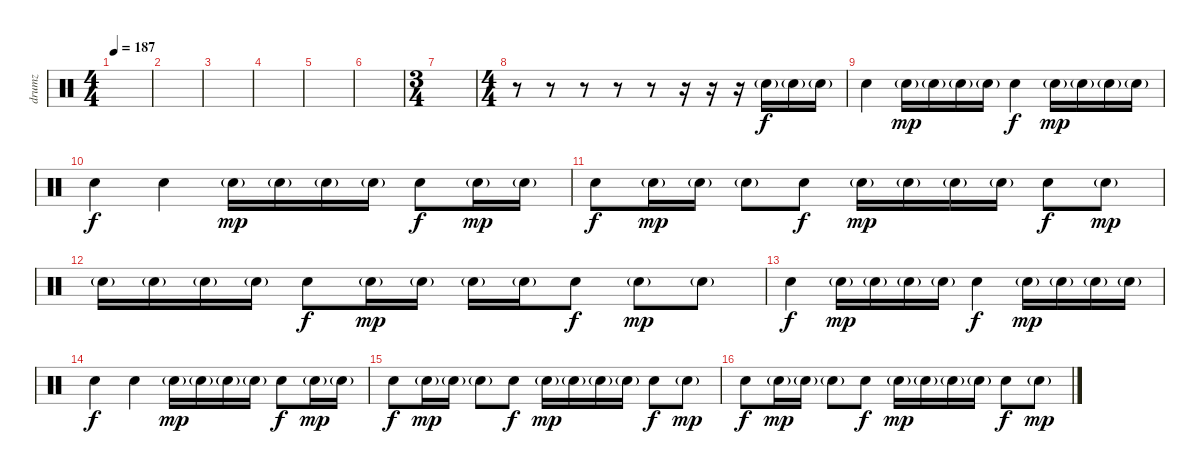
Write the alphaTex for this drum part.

\track ("drumz" "drumz") {instrument percussion}
\staff {score}
\articulation defaults
\ts (4 4)
\tempo 187
\clef neutral
\ks c
|
|
|
|
|
|
\ts (3 4)
|
\ts (4 4)
r.8 r.8 r.8 r.8 r.8 r.16 r.16 r.16 "Electric Snare (hit)"{g}.16 "Electric Snare (hit)"{g}.16 "Electric Snare (hit)"{g}.16 |
"Electric Snare (hit)".4{dy f} "Electric Snare (hit)"{g}.16{dy mp} "Electric Snare (hit)"{g}.16 "Electric Snare (hit)"{g}.16 "Electric Snare (hit)"{g}.16 "Electric Snare (hit)".4{dy f} "Electric Snare (hit)"{g}.16{dy mp} "Electric Snare (hit)"{g}.16 "Electric Snare (hit)"{g}.16 "Electric Snare (hit)"{g}.16 |
"Electric Snare (hit)".4{dy f} "Electric Snare (hit)".4 "Electric Snare (hit)"{g}.16{dy mp} "Electric Snare (hit)"{g}.16 "Electric Snare (hit)"{g}.16 "Electric Snare (hit)"{g}.16 "Electric Snare (hit)".8{dy f} "Electric Snare (hit)"{g}.16{dy mp} "Electric Snare (hit)"{g}.16 |
"Electric Snare (hit)".8{dy f} "Electric Snare (hit)"{g}.16{dy mp} "Electric Snare (hit)"{g}.16 "Electric Snare (hit)"{g}.8 "Electric Snare (hit)".8{dy f} "Electric Snare (hit)"{g}.16{dy mp} "Electric Snare (hit)"{g}.16 "Electric Snare (hit)"{g}.16 "Electric Snare (hit)"{g}.16 "Electric Snare (hit)".8{dy f} "Electric Snare (hit)"{g}.8{dy mp} |
"Electric Snare (hit)"{g}.16 "Electric Snare (hit)"{g}.16 "Electric Snare (hit)"{g}.16 "Electric Snare (hit)"{g}.16 "Electric Snare (hit)".8{dy f} "Electric Snare (hit)"{g}.16{dy mp} "Electric Snare (hit)"{g}.16 "Electric Snare (hit)"{g}.16 "Electric Snare (hit)"{g}.16 "Electric Snare (hit)".8{dy f} "Electric Snare (hit)"{g}.8{dy mp} "Electric Snare (hit)"{g}.8 |
"Electric Snare (hit)".4{dy f} "Electric Snare (hit)"{g}.16{dy mp} "Electric Snare (hit)"{g}.16 "Electric Snare (hit)"{g}.16 "Electric Snare (hit)"{g}.16 "Electric Snare (hit)".4{dy f} "Electric Snare (hit)"{g}.16{dy mp} "Electric Snare (hit)"{g}.16 "Electric Snare (hit)"{g}.16 "Electric Snare (hit)"{g}.16 |
"Electric Snare (hit)".4{dy f} "Electric Snare (hit)".4 "Electric Snare (hit)"{g}.16{dy mp} "Electric Snare (hit)"{g}.16 "Electric Snare (hit)"{g}.16 "Electric Snare (hit)"{g}.16 "Electric Snare (hit)".8{dy f} "Electric Snare (hit)"{g}.16{dy mp} "Electric Snare (hit)"{g}.16 |
"Electric Snare (hit)".8{dy f} "Electric Snare (hit)"{g}.16{dy mp} "Electric Snare (hit)"{g}.16 "Electric Snare (hit)"{g}.8 "Electric Snare (hit)".8{dy f} "Electric Snare (hit)"{g}.16{dy mp} "Electric Snare (hit)"{g}.16 "Electric Snare (hit)"{g}.16 "Electric Snare (hit)"{g}.16 "Electric Snare (hit)".8{dy f} "Electric Snare (hit)"{g}.8{dy mp} |
"Electric Snare (hit)".8{dy f} "Electric Snare (hit)"{g}.16{dy mp} "Electric Snare (hit)"{g}.16 "Electric Snare (hit)"{g}.8 "Electric Snare (hit)".8{dy f} "Electric Snare (hit)"{g}.16{dy mp} "Electric Snare (hit)"{g}.16 "Electric Snare (hit)"{g}.16 "Electric Snare (hit)"{g}.16 "Electric Snare (hit)".8{dy f} "Electric Snare (hit)"{g}.8{dy mp}
